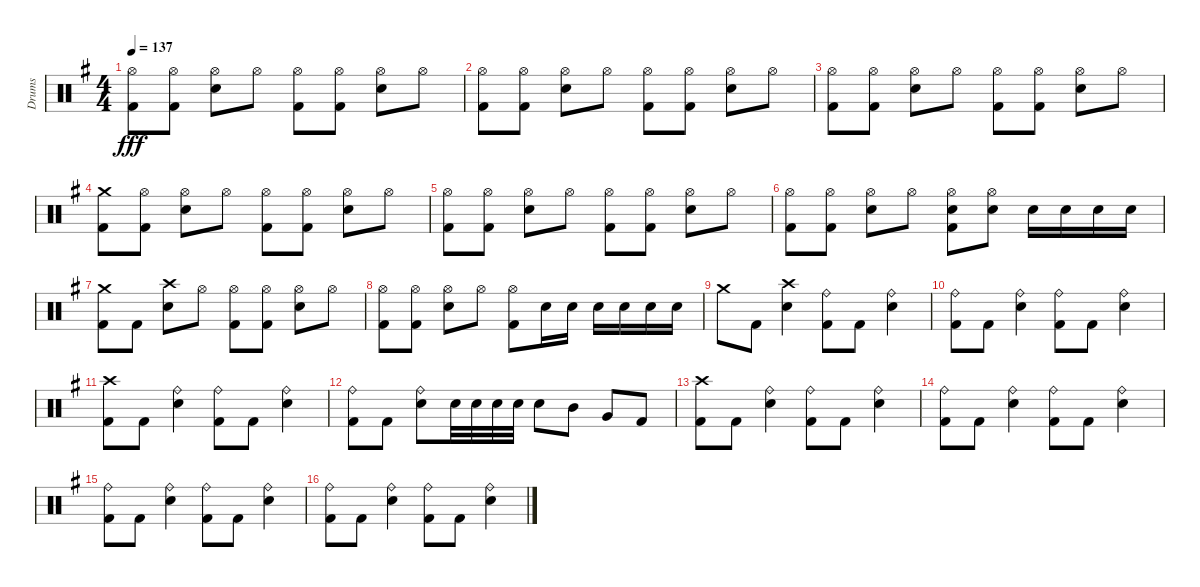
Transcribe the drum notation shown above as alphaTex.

\track ("Drums" "Drums") {instrument percussion}
\staff {score}
\articulation defaults
\ts (4 4)
\tempo 137
\clef neutral
\ks g
("Hi-Hat (open)" "Kick (hit) 2").8{dy fff} ("Hi-Hat (open)" "Kick (hit) 2").8 ("Hi-Hat (open)" "Electric Snare (hit)").8 "Hi-Hat (open)".8 ("Hi-Hat (open)" "Kick (hit) 2").8 ("Hi-Hat (open)" "Kick (hit) 2").8 ("Hi-Hat (open)" "Electric Snare (hit)").8 "Hi-Hat (open)".8 |
("Hi-Hat (open)" "Kick (hit) 2").8 ("Hi-Hat (open)" "Kick (hit) 2").8 ("Hi-Hat (open)" "Electric Snare (hit)").8 "Hi-Hat (open)".8 ("Hi-Hat (open)" "Kick (hit) 2").8 ("Hi-Hat (open)" "Kick (hit) 2").8 ("Hi-Hat (open)" "Electric Snare (hit)").8 "Hi-Hat (open)".8 |
("Hi-Hat (open)" "Kick (hit) 2").8 ("Hi-Hat (open)" "Kick (hit) 2").8 ("Hi-Hat (open)" "Electric Snare (hit)").8 "Hi-Hat (open)".8 ("Hi-Hat (open)" "Kick (hit) 2").8 ("Hi-Hat (open)" "Kick (hit) 2").8 ("Hi-Hat (open)" "Electric Snare (hit)").8 "Hi-Hat (open)".8 |
("Crash medium (hit)" "Kick (hit) 2").8 ("Hi-Hat (open)" "Kick (hit) 2").8 ("Hi-Hat (open)" "Electric Snare (hit)").8 "Hi-Hat (open)".8 ("Hi-Hat (open)" "Kick (hit) 2").8 ("Hi-Hat (open)" "Kick (hit) 2").8 ("Hi-Hat (open)" "Electric Snare (hit)").8 "Hi-Hat (open)".8 |
("Hi-Hat (open)" "Kick (hit) 2").8 ("Hi-Hat (open)" "Kick (hit) 2").8 ("Hi-Hat (open)" "Electric Snare (hit)").8 "Hi-Hat (open)".8 ("Hi-Hat (open)" "Kick (hit) 2").8 ("Hi-Hat (open)" "Kick (hit) 2").8 ("Hi-Hat (open)" "Electric Snare (hit)").8 "Hi-Hat (open)".8 |
("Hi-Hat (open)" "Kick (hit) 2").8 ("Hi-Hat (open)" "Kick (hit) 2").8 ("Hi-Hat (open)" "Electric Snare (hit)").8 "Hi-Hat (open)".8 ("Hi-Hat (open)" "Electric Snare (hit)" "Kick (hit) 2").8 ("Hi-Hat (open)" "Electric Snare (hit)").8 "Electric Snare (hit)".16 "Electric Snare (hit)".16 "Electric Snare (hit)".16 "Electric Snare (hit)".16 |
("Crash medium (hit)" "Kick (hit) 2").8 "Kick (hit) 2".8 ("Crash high (hit)" "Electric Snare (hit)").8 "Hi-Hat (open)".8 ("Hi-Hat (open)" "Kick (hit) 2").8 ("Hi-Hat (open)" "Kick (hit) 2").8 ("Hi-Hat (open)" "Electric Snare (hit)").8 "Hi-Hat (open)".8 |
("Hi-Hat (open)" "Kick (hit) 2").8 ("Hi-Hat (open)" "Kick (hit) 2").8 ("Hi-Hat (open)" "Electric Snare (hit)").8 "Hi-Hat (open)".8 ("Hi-Hat (open)" "Kick (hit) 2").8 "Electric Snare (hit)".16 "Electric Snare (hit)".16 "Electric Snare (hit)".16 "Electric Snare (hit)".16 "Electric Snare (hit)".16 "Electric Snare (hit)".16 |
"Crash medium (hit)".8 "Kick (hit) 2".8 ("Crash high (hit)" "Electric Snare (hit)").4 ("Ride (bell)" "Kick (hit) 2").8 "Kick (hit) 2".8 ("Ride (bell)" "Electric Snare (hit)").4 |
("Ride (bell)" "Kick (hit) 2").8 "Kick (hit) 2".8 ("Ride (bell)" "Electric Snare (hit)").4 ("Ride (bell)" "Kick (hit) 2").8 "Kick (hit) 2".8 ("Ride (bell)" "Electric Snare (hit)").4 |
("Crash high (hit)" "Kick (hit) 2").8 "Kick (hit) 2".8 ("Ride (bell)" "Electric Snare (hit)").4 ("Ride (bell)" "Kick (hit) 2").8 "Kick (hit) 2".8 ("Ride (bell)" "Electric Snare (hit)").4 |
("Ride (bell)" "Kick (hit) 2").8 "Kick (hit) 2".8 ("Ride (bell)" "Electric Snare (hit)").8 "Electric Snare (hit)".32 "Electric Snare (hit)".32 "Electric Snare (hit)".32 "Electric Snare (hit)".32 "Electric Snare (hit)".8 "Mid Tom (hit)".8 "Very Low Tom (hit)".8 "Kick (hit) 2".8 |
("Crash high (hit)" "Kick (hit) 2").8 "Kick (hit) 2".8 ("Ride (bell)" "Electric Snare (hit)").4 ("Ride (bell)" "Kick (hit) 2").8 "Kick (hit) 2".8 ("Ride (bell)" "Electric Snare (hit)").4 |
("Ride (bell)" "Kick (hit) 2").8 "Kick (hit) 2".8 ("Ride (bell)" "Electric Snare (hit)").4 ("Ride (bell)" "Kick (hit) 2").8 "Kick (hit) 2".8 ("Ride (bell)" "Electric Snare (hit)").4 |
("Ride (bell)" "Kick (hit) 2").8 "Kick (hit) 2".8 ("Ride (bell)" "Electric Snare (hit)").4 ("Ride (bell)" "Kick (hit) 2").8 "Kick (hit) 2".8 ("Ride (bell)" "Electric Snare (hit)").4 |
("Ride (bell)" "Kick (hit) 2").8 "Kick (hit) 2".8 ("Ride (bell)" "Electric Snare (hit)").4 ("Ride (bell)" "Kick (hit) 2").8 "Kick (hit) 2".8 ("Ride (bell)" "Electric Snare (hit)").4
